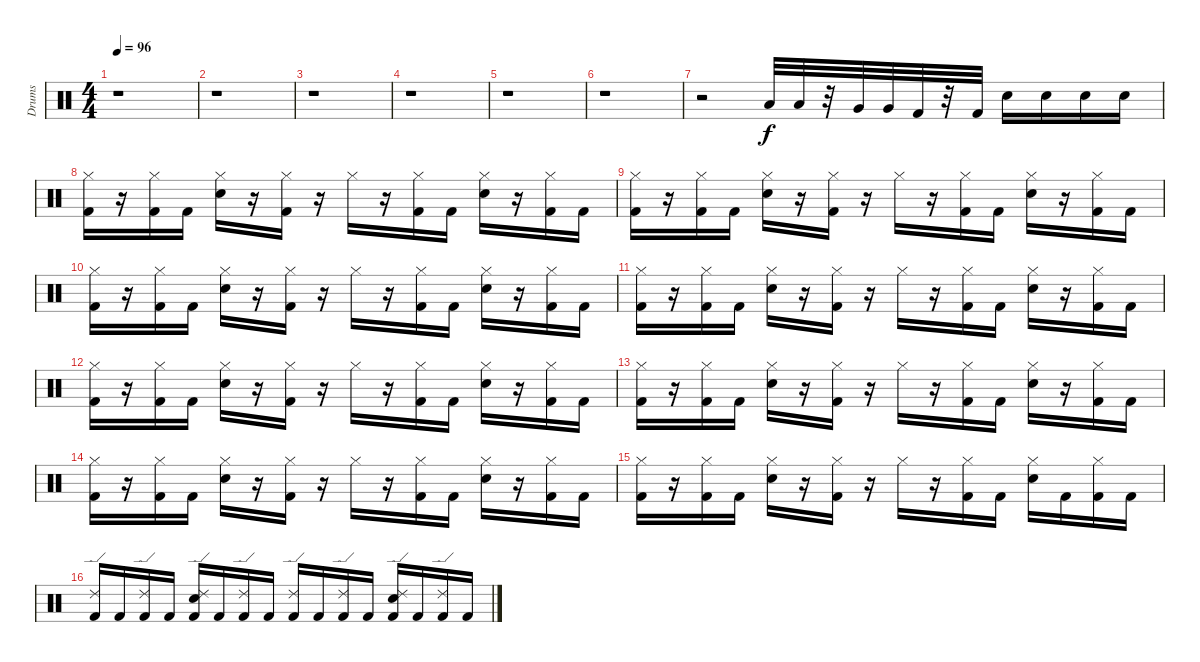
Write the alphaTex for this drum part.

\track ("Drums" "Drums") {instrument percussion}
\staff {score}
\articulation defaults
\ts (4 4)
\tempo 96
\clef neutral
\ks c
r.1{dy f} |
r.1 |
r.1 |
r.1 |
r.1 |
r.1 |
r.2 "Low Tom (hit)".32{volume 16} "Low Tom (hit)".32 r.32 "Very Low Tom (hit)".32 "Very Low Tom (hit)".32 "Kick (hit) 2".32 r.32 "Kick (hit) 2".32 "Electric Snare (hit)".16 "Electric Snare (hit)".16 "Electric Snare (hit)".16 "Electric Snare (hit)".16 |
("Hi-Hat (closed)" "Kick (hit) 2").16 r.16 ("Hi-Hat (closed)" "Kick (hit) 2").16 "Kick (hit) 2".16 ("Hi-Hat (closed)" "Electric Snare (hit)").16 r.16 ("Hi-Hat (closed)" "Kick (hit) 2").16 r.16 "Hi-Hat (closed)".16 r.16 ("Hi-Hat (closed)" "Kick (hit) 2").16 "Kick (hit) 2".16 ("Hi-Hat (closed)" "Electric Snare (hit)").16 r.16 ("Kick (hit) 2" "Hi-Hat (closed)").16 "Kick (hit) 2".16 |
("Hi-Hat (closed)" "Kick (hit) 2").16 r.16 ("Hi-Hat (closed)" "Kick (hit) 2").16 "Kick (hit) 2".16 ("Hi-Hat (closed)" "Electric Snare (hit)").16 r.16 ("Hi-Hat (closed)" "Kick (hit) 2").16 r.16 "Hi-Hat (closed)".16 r.16 ("Hi-Hat (closed)" "Kick (hit) 2").16 "Kick (hit) 2".16 ("Hi-Hat (closed)" "Electric Snare (hit)").16 r.16 ("Kick (hit) 2" "Hi-Hat (closed)").16 "Kick (hit) 2".16 |
("Hi-Hat (closed)" "Kick (hit) 2").16 r.16 ("Hi-Hat (closed)" "Kick (hit) 2").16 "Kick (hit) 2".16 ("Hi-Hat (closed)" "Electric Snare (hit)").16 r.16 ("Hi-Hat (closed)" "Kick (hit) 2").16 r.16 "Hi-Hat (closed)".16 r.16 ("Hi-Hat (closed)" "Kick (hit) 2").16 "Kick (hit) 2".16 ("Hi-Hat (closed)" "Electric Snare (hit)").16 r.16 ("Kick (hit) 2" "Hi-Hat (closed)").16 "Kick (hit) 2".16 |
("Hi-Hat (closed)" "Kick (hit) 2").16 r.16 ("Hi-Hat (closed)" "Kick (hit) 2").16 "Kick (hit) 2".16 ("Hi-Hat (closed)" "Electric Snare (hit)").16 r.16 ("Hi-Hat (closed)" "Kick (hit) 2").16 r.16 "Hi-Hat (closed)".16 r.16 ("Hi-Hat (closed)" "Kick (hit) 2").16 "Kick (hit) 2".16 ("Hi-Hat (closed)" "Electric Snare (hit)").16 r.16 ("Kick (hit) 2" "Hi-Hat (closed)").16 "Kick (hit) 2".16 |
("Hi-Hat (closed)" "Kick (hit) 2").16 r.16 ("Hi-Hat (closed)" "Kick (hit) 2").16 "Kick (hit) 2".16 ("Hi-Hat (closed)" "Electric Snare (hit)").16 r.16 ("Hi-Hat (closed)" "Kick (hit) 2").16 r.16 "Hi-Hat (closed)".16 r.16 ("Hi-Hat (closed)" "Kick (hit) 2").16 "Kick (hit) 2".16 ("Hi-Hat (closed)" "Electric Snare (hit)").16 r.16 ("Kick (hit) 2" "Hi-Hat (closed)").16 "Kick (hit) 2".16 |
("Hi-Hat (closed)" "Kick (hit) 2").16 r.16 ("Hi-Hat (closed)" "Kick (hit) 2").16 "Kick (hit) 2".16 ("Hi-Hat (closed)" "Electric Snare (hit)").16 r.16 ("Hi-Hat (closed)" "Kick (hit) 2").16 r.16 "Hi-Hat (closed)".16 r.16 ("Hi-Hat (closed)" "Kick (hit) 2").16 "Kick (hit) 2".16 ("Hi-Hat (closed)" "Electric Snare (hit)").16 r.16 ("Kick (hit) 2" "Hi-Hat (closed)").16 "Kick (hit) 2".16 |
("Hi-Hat (closed)" "Kick (hit) 2").16 r.16 ("Hi-Hat (closed)" "Kick (hit) 2").16 "Kick (hit) 2".16 ("Hi-Hat (closed)" "Electric Snare (hit)").16 r.16 ("Hi-Hat (closed)" "Kick (hit) 2").16 r.16 "Hi-Hat (closed)".16 r.16 ("Hi-Hat (closed)" "Kick (hit) 2").16 "Kick (hit) 2".16 ("Hi-Hat (closed)" "Electric Snare (hit)").16 r.16 ("Kick (hit) 2" "Hi-Hat (closed)").16 "Kick (hit) 2".16 |
("Hi-Hat (closed)" "Kick (hit) 2").16 r.16 ("Hi-Hat (closed)" "Kick (hit) 2").16 "Kick (hit) 2".16 ("Hi-Hat (closed)" "Electric Snare (hit)").16 r.16 ("Hi-Hat (closed)" "Kick (hit) 2").16 r.16 "Hi-Hat (closed)".16 r.16 ("Hi-Hat (closed)" "Kick (hit) 2").16 "Kick (hit) 2".16 ("Hi-Hat (closed)" "Electric Snare (hit)").16 "Kick (hit) 2".16 ("Kick (hit) 2" "Hi-Hat (closed)").16 "Kick (hit) 2".16 |
("Ride (edge) 2" "Kick (hit) 2").16 "Kick (hit) 2".16 ("Ride (edge) 2" "Kick (hit) 2").16 "Kick (hit) 2".16 ("Ride (edge) 2" "Electric Snare (hit)" "Kick (hit) 2").16 "Kick (hit) 2".16 ("Ride (edge) 2" "Kick (hit) 2").16 "Kick (hit) 2".16 ("Ride (edge) 2" "Kick (hit) 2").16 "Kick (hit) 2".16 ("Ride (edge) 2" "Kick (hit) 2").16 "Kick (hit) 2".16 ("Ride (edge) 2" "Electric Snare (hit)" "Kick (hit) 2").16 "Kick (hit) 2".16 ("Ride (edge) 2" "Kick (hit) 2").16 "Kick (hit) 2".16
